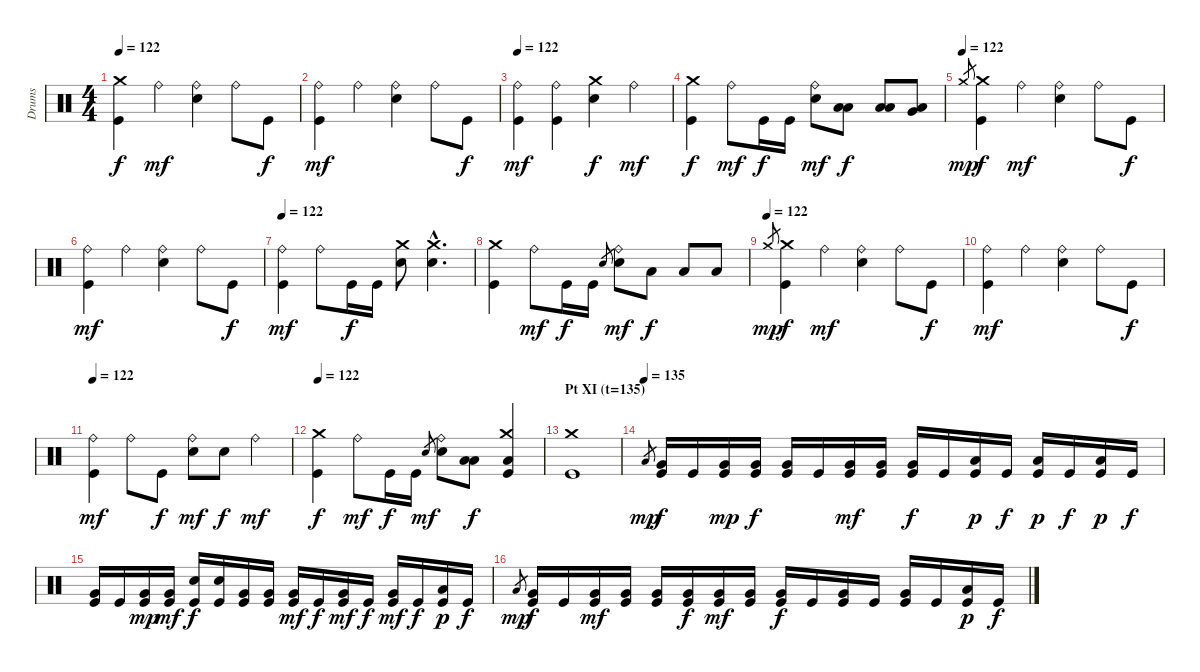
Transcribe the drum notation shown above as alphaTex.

\track ("Drums" "Drums") {instrument percussion}
\staff {score}
\articulation defaults
\ts (4 4)
\tempo 122
\clef neutral
\ks c
("Kick (hit)" "Crash medium (hit)").4{dy f} "Ride (bell)".4{dy mf} ("Electric Snare (hit)" "Ride (bell)").4 "Ride (bell)".8 "Kick (hit)".8{dy f} |
("Kick (hit)" "Ride (bell)").4{dy mf} "Ride (bell)".4 ("Electric Snare (hit)" "Ride (bell)").4 "Ride (bell)".8 "Kick (hit)".8{dy f} |
\tempo 122
("Kick (hit)" "Ride (bell)").4{dy mf} ("Kick (hit)" "Ride (bell)").4 ("Electric Snare (hit)" "Crash medium (hit)").4{dy f} "Ride (bell)".4{dy mf} |
("Kick (hit)" "Crash medium (hit)").4{dy f} "Ride (bell)".8{dy mf} "Kick (hit)".16{dy f} "Kick (hit)".16 ("Electric Snare (hit)" "Ride (bell)").8{dy mf} ("Low Tom (hit)" "Low Tom (hit)").8{dy f} ("Low Tom (hit)" "Low Tom (hit)").8 ("Very Low Tom (hit)" "Low Tom (hit)").8 |
\tempo (122)
"Crash medium (hit)".8{gr dy mp} ("Kick (hit)" "Crash medium (hit)").4{dy f} "Ride (bell)".4{dy mf} ("Electric Snare (hit)" "Ride (bell)").4 "Ride (bell)".8 "Kick (hit)".8{dy f} |
("Kick (hit)" "Ride (bell)").4{dy mf} "Ride (bell)".4 ("Electric Snare (hit)" "Ride (bell)").4 "Ride (bell)".8 "Kick (hit)".8{dy f} |
\tempo 122
("Kick (hit)" "Ride (bell)").4{dy mf} "Ride (bell)".8 "Kick (hit)".16{dy f} "Kick (hit)".16 ("Electric Snare (hit)" "Crash medium (hit)").8 ("Electric Snare (hit)"{hac} "Crash medium (hit)"{hac}).4{d} |
("Kick (hit)" "Crash medium (hit)").4 "Ride (bell)".8{dy mf} "Kick (hit)".16{dy f} "Kick (hit)".16 "Electric Snare (hit)".8{gr} ("Electric Snare (hit)" "Ride (bell)").8{dy mf} "Low Tom (hit)".8{dy f} "Low Tom (hit)".8 "Low Tom (hit)".8 |
\tempo (122)
"Crash medium (hit)".8{gr dy mp} ("Kick (hit)" "Crash medium (hit)").4{dy f} "Ride (bell)".4{dy mf} ("Electric Snare (hit)" "Ride (bell)").4 "Ride (bell)".8 "Kick (hit)".8{dy f} |
("Kick (hit)" "Ride (bell)").4{dy mf} "Ride (bell)".4 ("Electric Snare (hit)" "Ride (bell)").4 "Ride (bell)".8 "Kick (hit)".8{dy f} |
\tempo 122
("Kick (hit)" "Ride (bell)").4{dy mf} "Ride (bell)".8 "Kick (hit)".8{dy f} ("Electric Snare (hit)" "Ride (bell)").8{dy mf} "Electric Snare (hit)".8{dy f} "Ride (bell)".4{dy mf} |
\tempo 122
("Kick (hit)" "Crash medium (hit)").4{dy f} "Ride (bell)".8{dy mf} "Kick (hit)".16{dy f} "Kick (hit)".16 "Electric Snare (hit)".8{gr dy mf} ("Electric Snare (hit)" "Ride (bell)").8 ("Low Tom (hit)" "Low Tom (hit)").8{dy f} ("Kick (hit)" "Low Tom (hit)" "Crash medium (hit)").4 |
\section ("" "Pt XI (t=135)")
("Kick (hit)" "Crash medium (hit)").1 |
\tempo (135)
"Low Floor Tom (hit)".8{gr dy mp} ("Kick (hit)" "Very Low Tom (hit)").16{dy f volume 9} "Kick (hit)".16 ("Kick (hit)" "Very Low Tom (hit)").16{dy mp} ("Kick (hit)" "Very Low Tom (hit)").16{dy f} ("Kick (hit)" "Very Low Tom (hit)").16 "Kick (hit)".16 ("Kick (hit)" "Very Low Tom (hit)").16{dy mf} ("Kick (hit)" "Very Low Tom (hit)").16 ("Kick (hit)" "Very Low Tom (hit)").16{dy f} "Kick (hit)".16 ("Kick (hit)" "Low Floor Tom (hit)").16{dy p} "Kick (hit)".16{dy f} ("Kick (hit)" "Low Floor Tom (hit)").16{dy p} "Kick (hit)".16{dy f} ("Kick (hit)" "Low Floor Tom (hit)").16{dy p} "Kick (hit)".16{dy f} |
("Kick (hit)" "Very Low Tom (hit)").16 "Kick (hit)".16 ("Kick (hit)" "Very Low Tom (hit)").16{dy mp} ("Kick (hit)" "Very Low Tom (hit)").16{dy mf} ("Kick (hit)" "Electric Snare (hit)").16{dy f} ("Kick (hit)" "Electric Snare (hit)").16 ("Kick (hit)" "Very Low Tom (hit)").16 ("Kick (hit)" "Very Low Tom (hit)").16 ("Kick (hit)" "Very Low Tom (hit)").16{dy mf} "Kick (hit)".16{dy f} ("Kick (hit)" "Very Low Tom (hit)").16{dy mf} "Kick (hit)".16{dy f} ("Kick (hit)" "Very Low Tom (hit)").16{dy mf} "Kick (hit)".16{dy f} ("Kick (hit)" "Low Floor Tom (hit)").16{dy p} "Kick (hit)".16{dy f} |
"Low Floor Tom (hit)".8{gr dy mp} ("Kick (hit)" "Very Low Tom (hit)").16{dy f} "Kick (hit)".16 ("Kick (hit)" "Very Low Tom (hit)").16{dy mf} ("Kick (hit)" "Very Low Tom (hit)").16 ("Kick (hit)" "Very Low Tom (hit)").16 ("Kick (hit)" "Very Low Tom (hit)").16{dy f} ("Kick (hit)" "Very Low Tom (hit)").16{dy mf} ("Kick (hit)" "Very Low Tom (hit)").16 ("Kick (hit)" "Very Low Tom (hit)").16{dy f} "Kick (hit)".16 ("Kick (hit)" "Very Low Tom (hit)").16 "Kick (hit)".16 ("Kick (hit)" "Very Low Tom (hit)").16 "Kick (hit)".16 ("Kick (hit)" "Low Floor Tom (hit)").16{dy p} "Kick (hit)".16{dy f}
